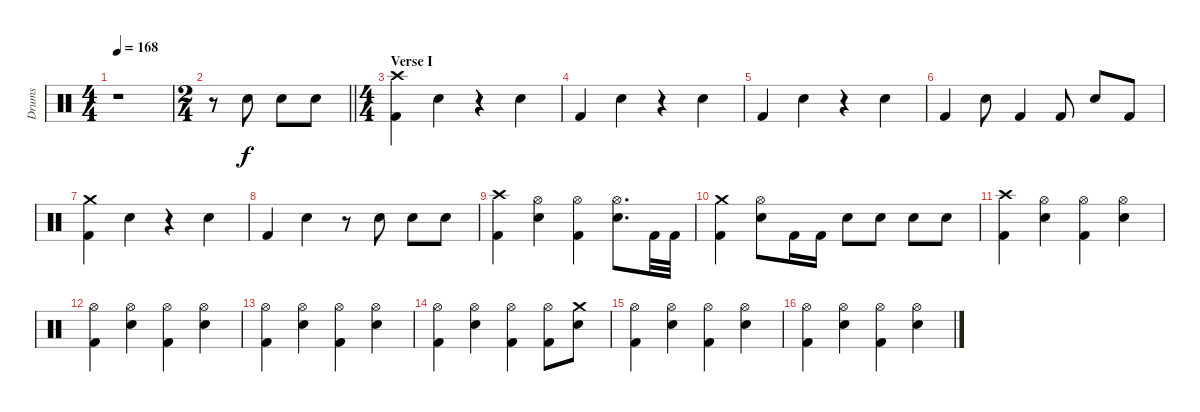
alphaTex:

\track ("Drums" "Drums") {instrument percussion}
\staff {score}
\articulation defaults
\ts (4 4)
\tempo 168
\clef neutral
\ks c
r.1{dy f} |
\ts (2 4)
\barLineRight lightlight
r.8 "Snare (hit) 2".8 "Snare (hit) 2".8 "Snare (hit) 2".8 |
\ts (4 4)
\section ("" "Verse I")
("Crash high (hit)" "Kick (hit) 2").4 "Snare (hit) 2".4 r.4 "Snare (hit) 2".4 |
"Kick (hit) 2".4 "Snare (hit) 2".4 r.4 "Snare (hit) 2".4 |
"Kick (hit) 2".4 "Snare (hit) 2".4 r.4 "Snare (hit) 2".4 |
"Kick (hit) 2".4 "Snare (hit) 2".8 "Kick (hit) 2".4 "Kick (hit) 2".8 "Snare (hit) 2".8 "Kick (hit) 2".8 |
("Crash medium (hit)" "Kick (hit) 2").4 "Snare (hit) 2".4 r.4 "Snare (hit) 2".4 |
"Kick (hit) 2".4 "Snare (hit) 2".4 r.8 "Snare (hit) 2".8 "Snare (hit) 2".8 "Snare (hit) 2".8 |
("Crash high (hit)" "Kick (hit) 2").4 ("Hi-Hat (open)" "Snare (hit) 2").4 ("Hi-Hat (open)" "Kick (hit) 2").4 ("Hi-Hat (open)" "Snare (hit) 2").8{d} "Kick (hit) 2".32 "Kick (hit) 2".32 |
("Crash medium (hit)" "Kick (hit) 2").4 ("Hi-Hat (open)" "Snare (hit) 2").8 "Kick (hit) 2".16 "Kick (hit) 2".16 "Snare (hit) 2".8 "Snare (hit) 2".8 "Snare (hit) 2".8 "Snare (hit) 2".8 |
("Crash high (hit)" "Kick (hit) 2").4 ("Hi-Hat (open)" "Snare (hit) 2").4 ("Hi-Hat (open)" "Kick (hit) 2").4 ("Hi-Hat (open)" "Snare (hit) 2").4 |
("Hi-Hat (open)" "Kick (hit) 2").4 ("Hi-Hat (open)" "Snare (hit) 2").4 ("Hi-Hat (open)" "Kick (hit) 2").4 ("Hi-Hat (open)" "Snare (hit) 2").4 |
("Hi-Hat (open)" "Kick (hit) 2").4 ("Hi-Hat (open)" "Snare (hit) 2").4 ("Hi-Hat (open)" "Kick (hit) 2").4 ("Hi-Hat (open)" "Snare (hit) 2").4 |
("Hi-Hat (open)" "Kick (hit) 2").4 ("Hi-Hat (open)" "Snare (hit) 2").4 ("Hi-Hat (open)" "Kick (hit) 2").4 ("Hi-Hat (open)" "Kick (hit) 2").8 ("Crash medium (hit)" "Snare (hit) 2").8 |
("Hi-Hat (open)" "Kick (hit) 2").4 ("Hi-Hat (open)" "Snare (hit) 2").4 ("Hi-Hat (open)" "Kick (hit) 2").4 ("Hi-Hat (open)" "Snare (hit) 2").4 |
("Hi-Hat (open)" "Kick (hit) 2").4 ("Hi-Hat (open)" "Snare (hit) 2").4 ("Hi-Hat (open)" "Kick (hit) 2").4 ("Hi-Hat (open)" "Snare (hit) 2").4
